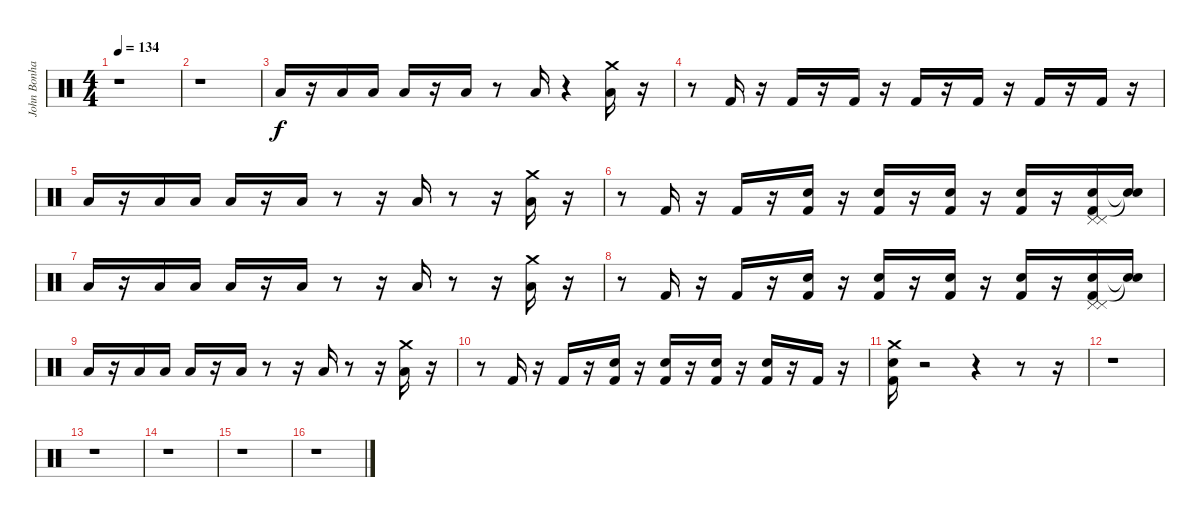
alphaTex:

\track ("John Bonham - Drums" "John Bonha") {instrument percussion}
\staff {score}
\articulation defaults
\ts (4 4)
\tempo 134
\clef neutral
\ks c
r.1{dy f} |
r.1 |
"Low Floor Tom (hit)".16 r.16 "Low Floor Tom (hit)".16 "Low Floor Tom (hit)".16 "Low Floor Tom (hit)".16 r.16 "Low Floor Tom (hit)".16 r.8 "Low Floor Tom (hit)".16 r.4 ("Low Floor Tom (hit)" "Crash medium (hit)").16 r.16 |
r.8 "Kick (hit) 2".16 r.16 "Kick (hit) 2".16 r.16 "Kick (hit) 2".16 r.16 "Kick (hit) 2".16 r.16 "Kick (hit) 2".16 r.16 "Kick (hit) 2".16 r.16 "Kick (hit) 2".16 r.16 |
"Low Floor Tom (hit)".16 r.16 "Low Floor Tom (hit)".16 "Low Floor Tom (hit)".16 "Low Floor Tom (hit)".16 r.16 "Low Floor Tom (hit)".16 r.8 r.16 "Low Floor Tom (hit)".16 r.8 r.16 ("Low Floor Tom (hit)" "Crash medium (hit)").16 r.16 |
r.8 "Kick (hit) 2".16 r.16 "Kick (hit) 2".16 r.16 ("Kick (hit) 2" "Snare (hit) 2").16 r.16 ("Kick (hit) 2" "Snare (hit) 2").16 r.16 ("Kick (hit) 2" "Snare (hit) 2").16 r.16 ("Kick (hit) 2" "Snare (hit) 2").16 r.16 ("Kick (hit) 2" "Snare (hit) 2" "Pedal Hi-Hat (hit)" "Pedal Hi-Hat (hit)").16 ("Snare (hit)"{t} "Snare (hit)"{t}).16 |
"Low Floor Tom (hit)".16 r.16 "Low Floor Tom (hit)".16 "Low Floor Tom (hit)".16 "Low Floor Tom (hit)".16 r.16 "Low Floor Tom (hit)".16 r.8 r.16 "Low Floor Tom (hit)".16 r.8 r.16 ("Low Floor Tom (hit)" "Crash medium (hit)").16 r.16 |
r.8 "Kick (hit) 2".16 r.16 "Kick (hit) 2".16 r.16 ("Kick (hit) 2" "Snare (hit) 2").16 r.16 ("Kick (hit) 2" "Snare (hit) 2").16 r.16 ("Kick (hit) 2" "Snare (hit) 2").16 r.16 ("Kick (hit) 2" "Snare (hit) 2").16 r.16 ("Kick (hit) 2" "Snare (hit) 2" "Pedal Hi-Hat (hit)" "Pedal Hi-Hat (hit)").16 ("Snare (hit)"{t} "Snare (hit)"{t}).16 |
"Low Floor Tom (hit)".16 r.16 "Low Floor Tom (hit)".16 "Low Floor Tom (hit)".16 "Low Floor Tom (hit)".16 r.16 "Low Floor Tom (hit)".16 r.8 r.16 "Low Floor Tom (hit)".16 r.8 r.16 ("Low Floor Tom (hit)" "Crash medium (hit)").16 r.16 |
r.8 "Kick (hit) 2".16 r.16 "Kick (hit) 2".16 r.16 ("Kick (hit) 2" "Snare (hit) 2").16 r.16 ("Kick (hit) 2" "Snare (hit) 2").16 r.16 ("Kick (hit) 2" "Snare (hit) 2").16 r.16 ("Kick (hit) 2" "Snare (hit) 2").16 r.16 "Kick (hit) 2".16 r.16 |
("Kick (hit) 2" "Crash medium (hit)" "Snare (hit) 2").16 r.2 r.4 r.8 r.16 |
r.1 |
r.1 |
r.1 |
r.1 |
r.1
